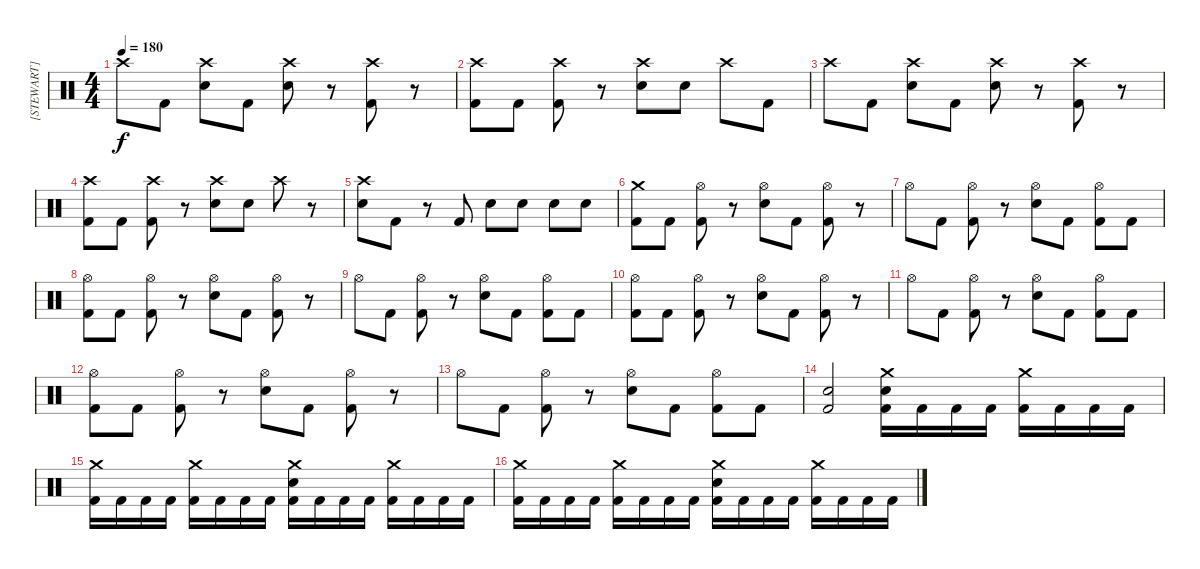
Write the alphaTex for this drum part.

\track ("[STEWART]" "[STEWART]") {instrument percussion}
\staff {score}
\articulation defaults
\ts (4 4)
\tempo 180
\clef neutral
\ks c "Crash high (hit)".8{dy f} "Kick (hit) 2".8
("Crash high (hit)" "Snare (hit) 2").8 "Kick (hit) 2".8 ("Crash high (hit)" "Snare (hit) 2").8 r.8 ("Crash high (hit)" "Kick (hit) 2").8 r.8 |
("Crash high (hit)" "Kick (hit) 2").8 "Kick (hit) 2".8 ("Crash high (hit)" "Kick (hit) 2").8 r.8 ("Crash high (hit)" "Snare (hit) 2").8 "Snare (hit) 2".8 "Crash high (hit)".8 "Kick (hit) 2".8 |
"Crash high (hit)".8 "Kick (hit) 2".8 ("Crash high (hit)" "Snare (hit) 2").8 "Kick (hit) 2".8 ("Crash high (hit)" "Snare (hit) 2").8 r.8 ("Crash high (hit)" "Kick (hit) 2").8 r.8 |
("Crash high (hit)" "Kick (hit) 2").8 "Kick (hit) 2".8 ("Crash high (hit)" "Kick (hit) 2").8 r.8 ("Crash high (hit)" "Snare (hit) 2").8 "Snare (hit) 2".8 "Crash high (hit)".8 r.8 |
("Crash high (hit)" "Snare (hit) 2").8 "Kick (hit) 2".8 r.8 "Kick (hit) 2".8 "Snare (hit) 2".8 "Snare (hit) 2".8 "Snare (hit) 2".8 "Snare (hit) 2".8 |
("Crash medium (hit)" "Kick (hit) 2").8 "Kick (hit) 2".8 ("Hi-Hat (open)" "Kick (hit) 2").8 r.8 ("Hi-Hat (open)" "Snare (hit) 2").8 "Kick (hit) 2".8 ("Hi-Hat (open)" "Kick (hit) 2").8 r.8 |
"Hi-Hat (open)".8 "Kick (hit) 2".8 ("Hi-Hat (open)" "Kick (hit) 2").8 r.8 ("Hi-Hat (open)" "Snare (hit) 2").8 "Kick (hit) 2".8 ("Hi-Hat (open)" "Kick (hit) 2").8 "Kick (hit) 2".8 |
("Hi-Hat (open)" "Kick (hit) 2").8 "Kick (hit) 2".8 ("Hi-Hat (open)" "Kick (hit) 2").8 r.8 ("Hi-Hat (open)" "Snare (hit) 2").8 "Kick (hit) 2".8 ("Hi-Hat (open)" "Kick (hit) 2").8 r.8 |
"Hi-Hat (open)".8 "Kick (hit) 2".8 ("Hi-Hat (open)" "Kick (hit) 2").8 r.8 ("Hi-Hat (open)" "Snare (hit) 2").8 "Kick (hit) 2".8 ("Hi-Hat (open)" "Kick (hit) 2").8 "Kick (hit) 2".8 |
("Hi-Hat (open)" "Kick (hit) 2").8 "Kick (hit) 2".8 ("Hi-Hat (open)" "Kick (hit) 2").8 r.8 ("Hi-Hat (open)" "Snare (hit) 2").8 "Kick (hit) 2".8 ("Hi-Hat (open)" "Kick (hit) 2").8 r.8 |
"Hi-Hat (open)".8 "Kick (hit) 2".8 ("Hi-Hat (open)" "Kick (hit) 2").8 r.8 ("Hi-Hat (open)" "Snare (hit) 2").8 "Kick (hit) 2".8 ("Hi-Hat (open)" "Kick (hit) 2").8 "Kick (hit) 2".8 |
("Hi-Hat (open)" "Kick (hit) 2").8 "Kick (hit) 2".8 ("Hi-Hat (open)" "Kick (hit) 2").8 r.8 ("Hi-Hat (open)" "Snare (hit) 2").8 "Kick (hit) 2".8 ("Hi-Hat (open)" "Kick (hit) 2").8 r.8 |
"Hi-Hat (open)".8 "Kick (hit) 2".8 ("Hi-Hat (open)" "Kick (hit) 2").8 r.8 ("Hi-Hat (open)" "Snare (hit) 2").8 "Kick (hit) 2".8 ("Hi-Hat (open)" "Kick (hit) 2").8 "Kick (hit) 2".8 |
("Snare (hit) 2" "Kick (hit) 2").2 ("Crash medium (hit)" "Snare (hit) 2" "Kick (hit) 2").16 "Kick (hit) 2".16 "Kick (hit) 2".16 "Kick (hit) 2".16 ("Crash medium (hit)" "Kick (hit) 2").16 "Kick (hit) 2".16 "Kick (hit) 2".16 "Kick (hit) 2".16 |
("Crash medium (hit)" "Kick (hit) 2").16 "Kick (hit) 2".16 "Kick (hit) 2".16 "Kick (hit) 2".16 ("Crash medium (hit)" "Kick (hit) 2").16 "Kick (hit) 2".16 "Kick (hit) 2".16 "Kick (hit) 2".16 ("Crash medium (hit)" "Snare (hit) 2" "Kick (hit) 2").16 "Kick (hit) 2".16 "Kick (hit) 2".16 "Kick (hit) 2".16 ("Crash medium (hit)" "Kick (hit) 2").16 "Kick (hit) 2".16 "Kick (hit) 2".16 "Kick (hit) 2".16 |
("Crash medium (hit)" "Kick (hit) 2").16 "Kick (hit) 2".16 "Kick (hit) 2".16 "Kick (hit) 2".16 ("Crash medium (hit)" "Kick (hit) 2").16 "Kick (hit) 2".16 "Kick (hit) 2".16 "Kick (hit) 2".16 ("Crash medium (hit)" "Snare (hit) 2" "Kick (hit) 2").16 "Kick (hit) 2".16 "Kick (hit) 2".16 "Kick (hit) 2".16 ("Crash medium (hit)" "Kick (hit) 2").16 "Kick (hit) 2".16 "Kick (hit) 2".16 "Kick (hit) 2".16
